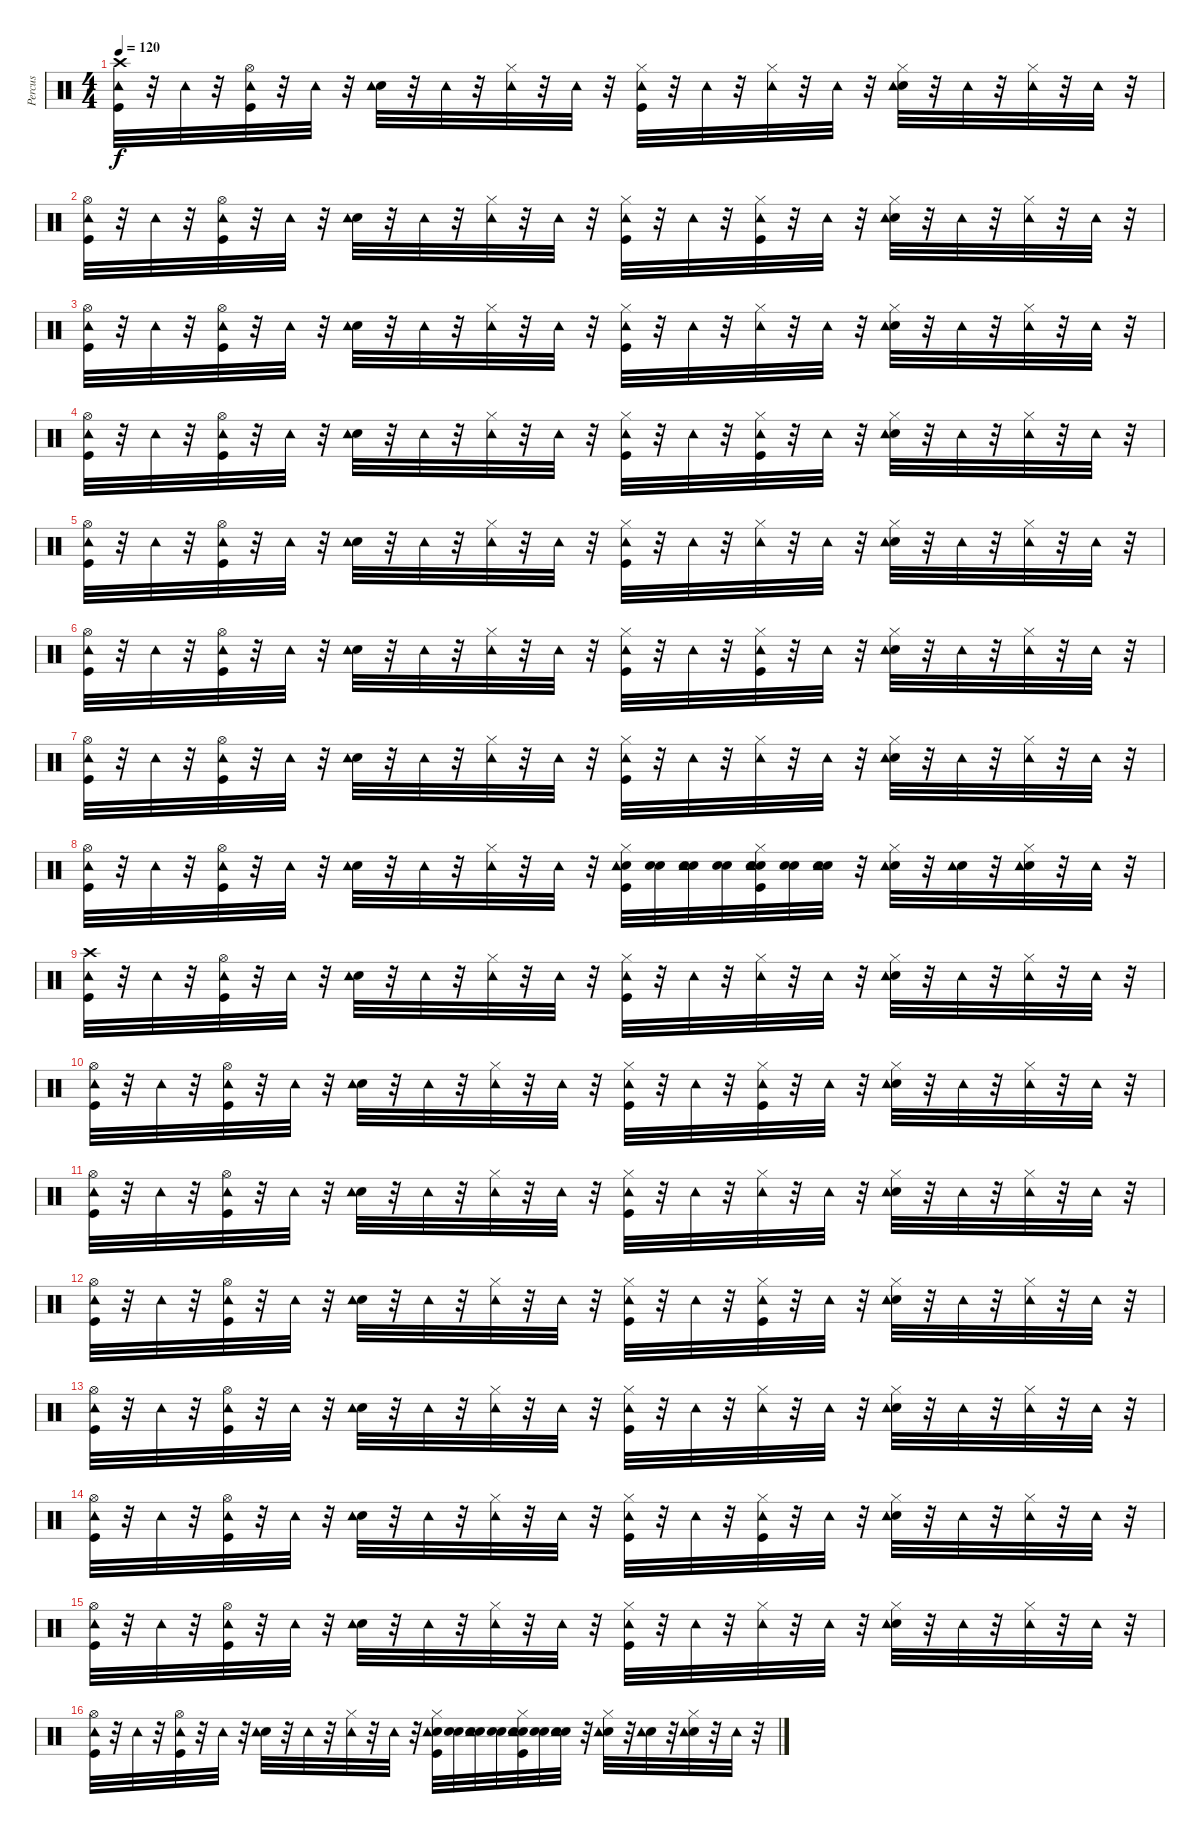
\track ("Percus" "Percus") {instrument percussion}
\staff {score}
\articulation defaults
\ts (4 4)
\tempo 120
\clef neutral
\ks c
("Kick (hit)" "Crash high (hit)" "Tambourine (hit)").32{dy f} r.32 "Tambourine (hit)".32 r.32 ("Kick (hit)" "Hi-Hat (open)" "Tambourine (hit)").32 r.32 "Tambourine (hit)".32 r.32 ("Electric Snare (hit)" "Tambourine (hit)").32 r.32 "Tambourine (hit)".32 r.32 ("Hi-Hat (closed)" "Tambourine (hit)").32 r.32 "Tambourine (hit)".32 r.32 ("Kick (hit)" "Hi-Hat (closed)" "Tambourine (hit)").32 r.32 "Tambourine (hit)".32 r.32 ("Hi-Hat (closed)" "Tambourine (hit)").32 r.32 "Tambourine (hit)".32 r.32 ("Electric Snare (hit)" "Hi-Hat (closed)" "Tambourine (hit)").32 r.32 "Tambourine (hit)".32 r.32 ("Hi-Hat (closed)" "Tambourine (hit)").32 r.32 "Tambourine (hit)".32 r.32 |
("Kick (hit)" "Hi-Hat (open)" "Tambourine (hit)").32 r.32 "Tambourine (hit)".32 r.32 ("Kick (hit)" "Hi-Hat (open)" "Tambourine (hit)").32 r.32 "Tambourine (hit)".32 r.32 ("Electric Snare (hit)" "Tambourine (hit)").32 r.32 "Tambourine (hit)".32 r.32 ("Hi-Hat (closed)" "Tambourine (hit)").32 r.32 "Tambourine (hit)".32 r.32 ("Kick (hit)" "Hi-Hat (closed)" "Tambourine (hit)").32 r.32 "Tambourine (hit)".32 r.32 ("Kick (hit)" "Hi-Hat (closed)" "Tambourine (hit)").32 r.32 "Tambourine (hit)".32 r.32 ("Electric Snare (hit)" "Hi-Hat (closed)" "Tambourine (hit)").32 r.32 "Tambourine (hit)".32 r.32 ("Hi-Hat (closed)" "Tambourine (hit)").32 r.32 "Tambourine (hit)".32 r.32 |
("Kick (hit)" "Hi-Hat (open)" "Tambourine (hit)").32 r.32 "Tambourine (hit)".32 r.32 ("Kick (hit)" "Hi-Hat (open)" "Tambourine (hit)").32 r.32 "Tambourine (hit)".32 r.32 ("Electric Snare (hit)" "Tambourine (hit)").32 r.32 "Tambourine (hit)".32 r.32 ("Hi-Hat (closed)" "Tambourine (hit)").32 r.32 "Tambourine (hit)".32 r.32 ("Kick (hit)" "Hi-Hat (closed)" "Tambourine (hit)").32 r.32 "Tambourine (hit)".32 r.32 ("Hi-Hat (closed)" "Tambourine (hit)").32 r.32 "Tambourine (hit)".32 r.32 ("Electric Snare (hit)" "Hi-Hat (closed)" "Tambourine (hit)").32 r.32 "Tambourine (hit)".32 r.32 ("Hi-Hat (closed)" "Tambourine (hit)").32 r.32 "Tambourine (hit)".32 r.32 |
("Kick (hit)" "Hi-Hat (open)" "Tambourine (hit)").32 r.32 "Tambourine (hit)".32 r.32 ("Kick (hit)" "Hi-Hat (open)" "Tambourine (hit)").32 r.32 "Tambourine (hit)".32 r.32 ("Electric Snare (hit)" "Tambourine (hit)").32 r.32 "Tambourine (hit)".32 r.32 ("Hi-Hat (closed)" "Tambourine (hit)").32 r.32 "Tambourine (hit)".32 r.32 ("Kick (hit)" "Hi-Hat (closed)" "Tambourine (hit)").32 r.32 "Tambourine (hit)".32 r.32 ("Kick (hit)" "Hi-Hat (closed)" "Tambourine (hit)").32 r.32 "Tambourine (hit)".32 r.32 ("Electric Snare (hit)" "Hi-Hat (closed)" "Tambourine (hit)").32 r.32 "Tambourine (hit)".32 r.32 ("Hi-Hat (closed)" "Tambourine (hit)").32 r.32 "Tambourine (hit)".32 r.32 |
("Kick (hit)" "Hi-Hat (open)" "Tambourine (hit)").32 r.32 "Tambourine (hit)".32 r.32 ("Kick (hit)" "Hi-Hat (open)" "Tambourine (hit)").32 r.32 "Tambourine (hit)".32 r.32 ("Electric Snare (hit)" "Tambourine (hit)").32 r.32 "Tambourine (hit)".32 r.32 ("Hi-Hat (closed)" "Tambourine (hit)").32 r.32 "Tambourine (hit)".32 r.32 ("Kick (hit)" "Hi-Hat (closed)" "Tambourine (hit)").32 r.32 "Tambourine (hit)".32 r.32 ("Hi-Hat (closed)" "Tambourine (hit)").32 r.32 "Tambourine (hit)".32 r.32 ("Electric Snare (hit)" "Hi-Hat (closed)" "Tambourine (hit)").32 r.32 "Tambourine (hit)".32 r.32 ("Hi-Hat (closed)" "Tambourine (hit)").32 r.32 "Tambourine (hit)".32 r.32 |
("Kick (hit)" "Hi-Hat (open)" "Tambourine (hit)").32 r.32 "Tambourine (hit)".32 r.32 ("Kick (hit)" "Hi-Hat (open)" "Tambourine (hit)").32 r.32 "Tambourine (hit)".32 r.32 ("Electric Snare (hit)" "Tambourine (hit)").32 r.32 "Tambourine (hit)".32 r.32 ("Hi-Hat (closed)" "Tambourine (hit)").32 r.32 "Tambourine (hit)".32 r.32 ("Kick (hit)" "Hi-Hat (closed)" "Tambourine (hit)").32 r.32 "Tambourine (hit)".32 r.32 ("Kick (hit)" "Hi-Hat (closed)" "Tambourine (hit)").32 r.32 "Tambourine (hit)".32 r.32 ("Electric Snare (hit)" "Hi-Hat (closed)" "Tambourine (hit)").32 r.32 "Tambourine (hit)".32 r.32 ("Hi-Hat (closed)" "Tambourine (hit)").32 r.32 "Tambourine (hit)".32 r.32 |
("Kick (hit)" "Hi-Hat (open)" "Tambourine (hit)").32 r.32 "Tambourine (hit)".32 r.32 ("Kick (hit)" "Hi-Hat (open)" "Tambourine (hit)").32 r.32 "Tambourine (hit)".32 r.32 ("Electric Snare (hit)" "Tambourine (hit)").32 r.32 "Tambourine (hit)".32 r.32 ("Hi-Hat (closed)" "Tambourine (hit)").32 r.32 "Tambourine (hit)".32 r.32 ("Kick (hit)" "Hi-Hat (closed)" "Tambourine (hit)").32 r.32 "Tambourine (hit)".32 r.32 ("Hi-Hat (closed)" "Tambourine (hit)").32 r.32 "Tambourine (hit)".32 r.32 ("Electric Snare (hit)" "Hi-Hat (closed)" "Tambourine (hit)").32 r.32 "Tambourine (hit)".32 r.32 ("Hi-Hat (closed)" "Tambourine (hit)").32 r.32 "Tambourine (hit)".32 r.32 |
("Kick (hit)" "Hi-Hat (open)" "Tambourine (hit)").32 r.32 "Tambourine (hit)".32 r.32 ("Kick (hit)" "Hi-Hat (open)" "Tambourine (hit)").32 r.32 "Tambourine (hit)".32 r.32 ("Electric Snare (hit)" "Tambourine (hit)").32 r.32 "Tambourine (hit)".32 r.32 ("Hi-Hat (closed)" "Tambourine (hit)").32 r.32 "Tambourine (hit)".32 r.32 ("Kick (hit)" "Electric Snare (hit)" "Hi-Hat (closed)" "Tambourine (hit)").32 ("Snare (hit)" "Electric Snare (hit)").32 ("Snare (hit)" "Electric Snare (hit)" "Tambourine (hit)").32 ("Snare (hit)" "Electric Snare (hit)").32 ("Snare (hit)" "Kick (hit)" "Electric Snare (hit)" "Hi-Hat (closed)" "Tambourine (hit)").32 ("Snare (hit)" "Electric Snare (hit)").32 ("Snare (hit)" "Electric Snare (hit)" "Tambourine (hit)").32 r.32 ("Electric Snare (hit)" "Hi-Hat (closed)" "Tambourine (hit)").32 r.32 ("Electric Snare (hit)" "Tambourine (hit)").32 r.32 ("Electric Snare (hit)" "Hi-Hat (closed)" "Tambourine (hit)").32 r.32 "Tambourine (hit)".32 r.32 |
("Kick (hit)" "Crash high (hit)" "Tambourine (hit)").32 r.32 "Tambourine (hit)".32 r.32 ("Kick (hit)" "Hi-Hat (open)" "Tambourine (hit)").32 r.32 "Tambourine (hit)".32 r.32 ("Electric Snare (hit)" "Tambourine (hit)").32 r.32 "Tambourine (hit)".32 r.32 ("Hi-Hat (closed)" "Tambourine (hit)").32 r.32 "Tambourine (hit)".32 r.32 ("Kick (hit)" "Hi-Hat (closed)" "Tambourine (hit)").32 r.32 "Tambourine (hit)".32 r.32 ("Hi-Hat (closed)" "Tambourine (hit)").32 r.32 "Tambourine (hit)".32 r.32 ("Electric Snare (hit)" "Hi-Hat (closed)" "Tambourine (hit)").32 r.32 "Tambourine (hit)".32 r.32 ("Hi-Hat (closed)" "Tambourine (hit)").32 r.32 "Tambourine (hit)".32 r.32 |
("Kick (hit)" "Hi-Hat (open)" "Tambourine (hit)").32 r.32 "Tambourine (hit)".32 r.32 ("Kick (hit)" "Hi-Hat (open)" "Tambourine (hit)").32 r.32 "Tambourine (hit)".32 r.32 ("Electric Snare (hit)" "Tambourine (hit)").32 r.32 "Tambourine (hit)".32 r.32 ("Hi-Hat (closed)" "Tambourine (hit)").32 r.32 "Tambourine (hit)".32 r.32 ("Kick (hit)" "Hi-Hat (closed)" "Tambourine (hit)").32 r.32 "Tambourine (hit)".32 r.32 ("Kick (hit)" "Hi-Hat (closed)" "Tambourine (hit)").32 r.32 "Tambourine (hit)".32 r.32 ("Electric Snare (hit)" "Hi-Hat (closed)" "Tambourine (hit)").32 r.32 "Tambourine (hit)".32 r.32 ("Hi-Hat (closed)" "Tambourine (hit)").32 r.32 "Tambourine (hit)".32 r.32 |
("Kick (hit)" "Hi-Hat (open)" "Tambourine (hit)").32 r.32 "Tambourine (hit)".32 r.32 ("Kick (hit)" "Hi-Hat (open)" "Tambourine (hit)").32 r.32 "Tambourine (hit)".32 r.32 ("Electric Snare (hit)" "Tambourine (hit)").32 r.32 "Tambourine (hit)".32 r.32 ("Hi-Hat (closed)" "Tambourine (hit)").32 r.32 "Tambourine (hit)".32 r.32 ("Kick (hit)" "Hi-Hat (closed)" "Tambourine (hit)").32 r.32 "Tambourine (hit)".32 r.32 ("Hi-Hat (closed)" "Tambourine (hit)").32 r.32 "Tambourine (hit)".32 r.32 ("Electric Snare (hit)" "Hi-Hat (closed)" "Tambourine (hit)").32 r.32 "Tambourine (hit)".32 r.32 ("Hi-Hat (closed)" "Tambourine (hit)").32 r.32 "Tambourine (hit)".32 r.32 |
("Kick (hit)" "Hi-Hat (open)" "Tambourine (hit)").32 r.32 "Tambourine (hit)".32 r.32 ("Kick (hit)" "Hi-Hat (open)" "Tambourine (hit)").32 r.32 "Tambourine (hit)".32 r.32 ("Electric Snare (hit)" "Tambourine (hit)").32 r.32 "Tambourine (hit)".32 r.32 ("Hi-Hat (closed)" "Tambourine (hit)").32 r.32 "Tambourine (hit)".32 r.32 ("Kick (hit)" "Hi-Hat (closed)" "Tambourine (hit)").32 r.32 "Tambourine (hit)".32 r.32 ("Kick (hit)" "Hi-Hat (closed)" "Tambourine (hit)").32 r.32 "Tambourine (hit)".32 r.32 ("Electric Snare (hit)" "Hi-Hat (closed)" "Tambourine (hit)").32 r.32 "Tambourine (hit)".32 r.32 ("Hi-Hat (closed)" "Tambourine (hit)").32 r.32 "Tambourine (hit)".32 r.32 |
("Kick (hit)" "Hi-Hat (open)" "Tambourine (hit)").32 r.32 "Tambourine (hit)".32 r.32 ("Kick (hit)" "Hi-Hat (open)" "Tambourine (hit)").32 r.32 "Tambourine (hit)".32 r.32 ("Electric Snare (hit)" "Tambourine (hit)").32 r.32 "Tambourine (hit)".32 r.32 ("Hi-Hat (closed)" "Tambourine (hit)").32 r.32 "Tambourine (hit)".32 r.32 ("Kick (hit)" "Hi-Hat (closed)" "Tambourine (hit)").32 r.32 "Tambourine (hit)".32 r.32 ("Hi-Hat (closed)" "Tambourine (hit)").32 r.32 "Tambourine (hit)".32 r.32 ("Electric Snare (hit)" "Hi-Hat (closed)" "Tambourine (hit)").32 r.32 "Tambourine (hit)".32 r.32 ("Hi-Hat (closed)" "Tambourine (hit)").32 r.32 "Tambourine (hit)".32 r.32 |
("Kick (hit)" "Hi-Hat (open)" "Tambourine (hit)").32 r.32 "Tambourine (hit)".32 r.32 ("Kick (hit)" "Hi-Hat (open)" "Tambourine (hit)").32 r.32 "Tambourine (hit)".32 r.32 ("Electric Snare (hit)" "Tambourine (hit)").32 r.32 "Tambourine (hit)".32 r.32 ("Hi-Hat (closed)" "Tambourine (hit)").32 r.32 "Tambourine (hit)".32 r.32 ("Kick (hit)" "Hi-Hat (closed)" "Tambourine (hit)").32 r.32 "Tambourine (hit)".32 r.32 ("Kick (hit)" "Hi-Hat (closed)" "Tambourine (hit)").32 r.32 "Tambourine (hit)".32 r.32 ("Electric Snare (hit)" "Hi-Hat (closed)" "Tambourine (hit)").32 r.32 "Tambourine (hit)".32 r.32 ("Hi-Hat (closed)" "Tambourine (hit)").32 r.32 "Tambourine (hit)".32 r.32 |
("Kick (hit)" "Hi-Hat (open)" "Tambourine (hit)").32 r.32 "Tambourine (hit)".32 r.32 ("Kick (hit)" "Hi-Hat (open)" "Tambourine (hit)").32 r.32 "Tambourine (hit)".32 r.32 ("Electric Snare (hit)" "Tambourine (hit)").32 r.32 "Tambourine (hit)".32 r.32 ("Hi-Hat (closed)" "Tambourine (hit)").32 r.32 "Tambourine (hit)".32 r.32 ("Kick (hit)" "Hi-Hat (closed)" "Tambourine (hit)").32 r.32 "Tambourine (hit)".32 r.32 ("Hi-Hat (closed)" "Tambourine (hit)").32 r.32 "Tambourine (hit)".32 r.32 ("Electric Snare (hit)" "Hi-Hat (closed)" "Tambourine (hit)").32 r.32 "Tambourine (hit)".32 r.32 ("Hi-Hat (closed)" "Tambourine (hit)").32 r.32 "Tambourine (hit)".32 r.32 |
("Kick (hit)" "Hi-Hat (open)" "Tambourine (hit)").32 r.32 "Tambourine (hit)".32 r.32 ("Kick (hit)" "Hi-Hat (open)" "Tambourine (hit)").32 r.32 "Tambourine (hit)".32 r.32 ("Electric Snare (hit)" "Tambourine (hit)").32 r.32 "Tambourine (hit)".32 r.32 ("Hi-Hat (closed)" "Tambourine (hit)").32 r.32 "Tambourine (hit)".32 r.32 ("Kick (hit)" "Electric Snare (hit)" "Hi-Hat (closed)" "Tambourine (hit)").32 ("Snare (hit)" "Electric Snare (hit)").32 ("Snare (hit)" "Electric Snare (hit)" "Tambourine (hit)").32 ("Snare (hit)" "Electric Snare (hit)").32 ("Snare (hit)" "Kick (hit)" "Electric Snare (hit)" "Hi-Hat (closed)" "Tambourine (hit)").32 ("Snare (hit)" "Electric Snare (hit)").32 ("Snare (hit)" "Electric Snare (hit)" "Tambourine (hit)").32 r.32 ("Electric Snare (hit)" "Hi-Hat (closed)" "Tambourine (hit)").32 r.32 ("Electric Snare (hit)" "Tambourine (hit)").32 r.32 ("Electric Snare (hit)" "Hi-Hat (closed)" "Tambourine (hit)").32 r.32 "Tambourine (hit)".32 r.32
